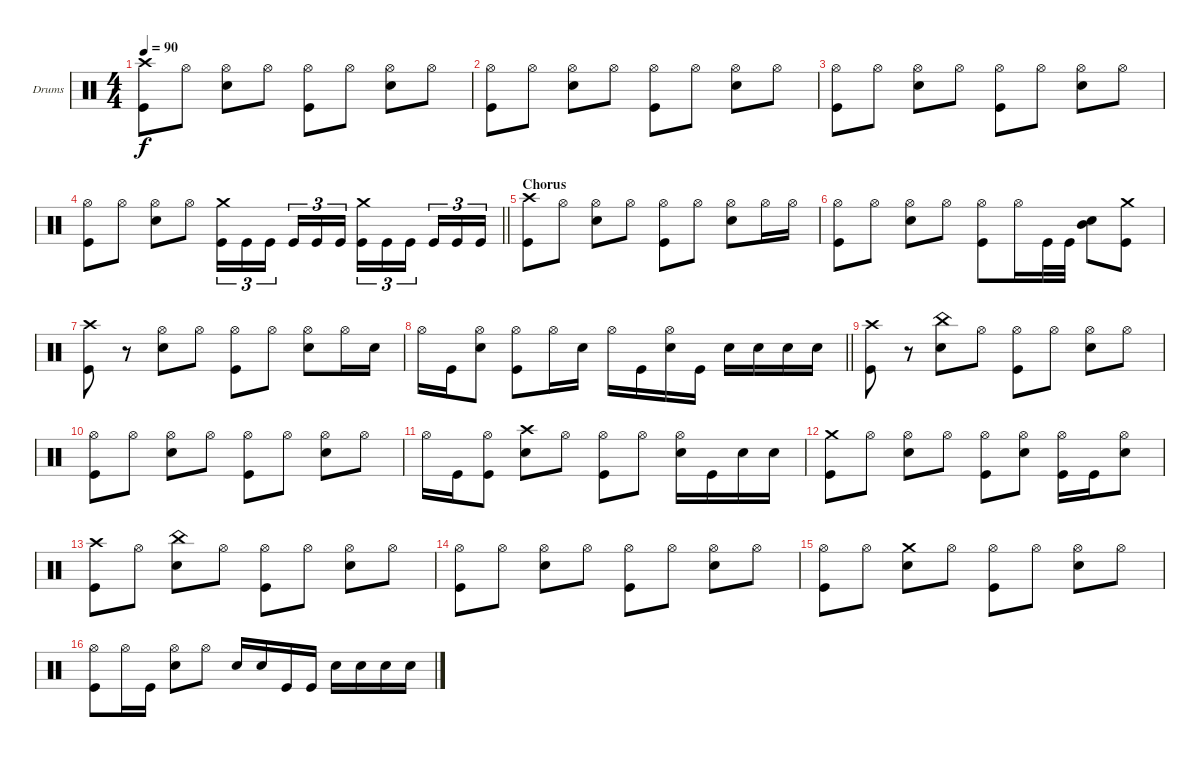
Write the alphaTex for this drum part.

\bracketExtendMode groupsimilarinstruments
\firstSystemTrackNameOrientation horizontal
\otherSystemsTrackNameOrientation horizontal
\track ("Drumkit" "Drums") {instrument percussion}
\staff {score}
\articulation defaults
\ts (4 4)
\tempo 90
\clef neutral
\ks c
("Crash high (hit)" "Kick (hit)").8{dy f} "Hi-Hat (open)".8 ("Hi-Hat (open)" "Snare (hit) 2").8 "Hi-Hat (open)".8 ("Hi-Hat (open)" "Kick (hit)").8 "Hi-Hat (open)".8 ("Hi-Hat (open)" "Snare (hit) 2").8 "Hi-Hat (open)".8 |
("Hi-Hat (open)" "Kick (hit)").8 "Hi-Hat (open)".8 ("Hi-Hat (open)" "Snare (hit) 2").8 "Hi-Hat (open)".8 ("Hi-Hat (open)" "Kick (hit)").8 "Hi-Hat (open)".8 ("Hi-Hat (open)" "Snare (hit) 2").8 "Hi-Hat (open)".8 |
("Hi-Hat (open)" "Kick (hit)").8 "Hi-Hat (open)".8 ("Hi-Hat (open)" "Snare (hit) 2").8 "Hi-Hat (open)".8 ("Hi-Hat (open)" "Kick (hit)").8 "Hi-Hat (open)".8 ("Hi-Hat (open)" "Snare (hit) 2").8 "Hi-Hat (open)".8 |
\barLineRight lightlight
("Hi-Hat (open)" "Kick (hit)").8 "Hi-Hat (open)".8 ("Hi-Hat (open)" "Snare (hit) 2").8 "Hi-Hat (open)".8 ("Crash medium (hit)" "Kick (hit)").16{tu (3 2)} "Kick (hit)".16{tu (3 2)} "Kick (hit)".16{tu (3 2)} "Kick (hit)".16{tu (3 2)} "Kick (hit)".16{tu (3 2)} "Kick (hit)".16{tu (3 2)} ("Crash medium (hit)" "Kick (hit)").16{tu (3 2)} "Kick (hit)".16{tu (3 2)} "Kick (hit)".16{tu (3 2)} "Kick (hit)".16{tu (3 2)} "Kick (hit)".16{tu (3 2)} "Kick (hit)".16{tu (3 2)} |
\section ("" "Chorus")
("Crash high (hit)" "Kick (hit)").8 "Hi-Hat (open)".8 ("Hi-Hat (open)" "Snare (hit) 2").8 "Hi-Hat (open)".8 ("Hi-Hat (open)" "Kick (hit)").8 "Hi-Hat (open)".8 ("Hi-Hat (open)" "Snare (hit) 2").8 "Hi-Hat (open)".16 "Hi-Hat (open)".16 |
("Hi-Hat (open)" "Kick (hit)").8 "Hi-Hat (open)".8 ("Hi-Hat (open)" "Snare (hit) 2").8 "Hi-Hat (open)".8 ("Hi-Hat (open)" "Kick (hit)").8 "Hi-Hat (open)".16 "Kick (hit)".32 "Kick (hit)".32 ("Snare (hit) 2" "Mid Tom (hit)").8 ("Crash medium (hit)" "Kick (hit)").8 |
("Crash high (hit)" "Kick (hit)").8 r.8 ("Hi-Hat (open)" "Snare (hit) 2").8 "Hi-Hat (open)".8 ("Hi-Hat (open)" "Kick (hit)").8 "Hi-Hat (open)".8 ("Hi-Hat (open)" "Snare (hit) 2").8 "Hi-Hat (open)".16 "Snare (hit) 2".16 |
\barLineRight lightlight "Hi-Hat (open)".16 "Kick (hit)".16
("Hi-Hat (open)" "Snare (hit) 2").8 ("Hi-Hat (open)" "Kick (hit)").8 "Hi-Hat (open)".16 "Snare (hit) 2".16 "Hi-Hat (open)".16 "Kick (hit)".16 ("Hi-Hat (open)" "Snare (hit) 2").16 "Kick (hit)".16 "Snare (hit) 2".16 "Snare (hit) 2".16 "Snare (hit) 2".16 "Snare (hit) 2".16 |
("Crash high (hit)" "Kick (hit)").8 r.8 ("China (hit)" "Snare (hit) 2").8 "Hi-Hat (open)".8 ("Hi-Hat (open)" "Kick (hit)").8 "Hi-Hat (open)".8 ("Hi-Hat (open)" "Snare (hit) 2").8 "Hi-Hat (open)".8 |
("Hi-Hat (open)" "Kick (hit)").8 "Hi-Hat (open)".8 ("Hi-Hat (open)" "Snare (hit) 2").8 "Hi-Hat (open)".8 ("Hi-Hat (open)" "Kick (hit)").8 "Hi-Hat (open)".8 ("Hi-Hat (open)" "Snare (hit) 2").8 "Hi-Hat (open)".8 |
"Hi-Hat (open)".16 "Kick (hit)".16 ("Hi-Hat (open)" "Kick (hit)").8 ("Crash high (hit)" "Snare (hit) 2").8 "Hi-Hat (open)".8 ("Hi-Hat (open)" "Kick (hit)").8 "Hi-Hat (open)".8 ("Hi-Hat (open)" "Snare (hit) 2").16 "Kick (hit)".16 "Snare (hit) 2".16 "Snare (hit) 2".16 |
("Crash medium (hit)" "Kick (hit)").8 "Hi-Hat (open)".8 ("Hi-Hat (open)" "Snare (hit) 2").8 "Hi-Hat (open)".8 ("Hi-Hat (open)" "Kick (hit)").8 ("Hi-Hat (open)" "Snare (hit) 2").8 ("Hi-Hat (open)" "Kick (hit)").16 "Kick (hit)".16 ("Hi-Hat (open)" "Snare (hit) 2").8 |
("Crash high (hit)" "Kick (hit)").8 "Hi-Hat (open)".8 ("China (hit)" "Snare (hit) 2").8 "Hi-Hat (open)".8 ("Hi-Hat (open)" "Kick (hit)").8 "Hi-Hat (open)".8 ("Hi-Hat (open)" "Snare (hit) 2").8 "Hi-Hat (open)".8 |
("Hi-Hat (open)" "Kick (hit)").8 "Hi-Hat (open)".8 ("Hi-Hat (open)" "Snare (hit) 2").8 "Hi-Hat (open)".8 ("Hi-Hat (open)" "Kick (hit)").8 "Hi-Hat (open)".8 ("Hi-Hat (open)" "Snare (hit) 2").8 "Hi-Hat (open)".8 |
("Hi-Hat (open)" "Kick (hit)").8 "Hi-Hat (open)".8 ("Crash medium (hit)" "Snare (hit) 2").8 "Hi-Hat (open)".8 ("Hi-Hat (open)" "Kick (hit)").8 "Hi-Hat (open)".8 ("Hi-Hat (open)" "Snare (hit) 2").8 "Hi-Hat (open)".8 |
("Hi-Hat (open)" "Kick (hit)").8 "Hi-Hat (open)".16 "Kick (hit)".16 ("Hi-Hat (open)" "Snare (hit) 2").8 "Hi-Hat (open)".8 "Snare (hit) 2".16 "Snare (hit) 2".16 "Kick (hit)".16 "Kick (hit)".16 "Snare (hit) 2".16 "Snare (hit) 2".16 "Snare (hit) 2".16 "Snare (hit) 2".16
